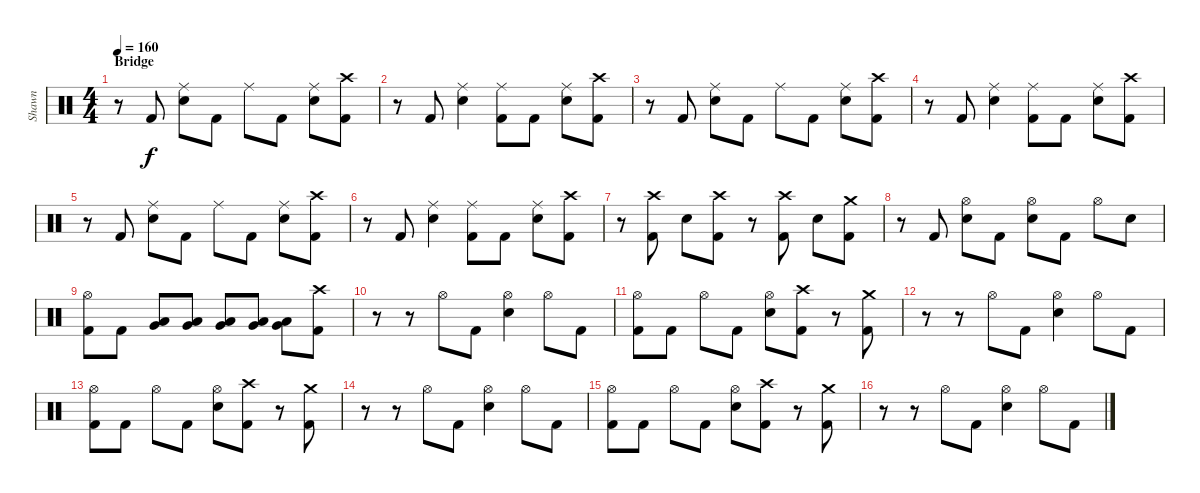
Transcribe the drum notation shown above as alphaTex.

\track ("Shawn" "Shawn") {instrument percussion}
\staff {score}
\articulation defaults
\ts (4 4)
\section ("" "Bridge")
\tempo 160
\clef neutral
\ks c
r.8{dy f} "Kick (hit) 2".8 ("Ride (middle)" "Snare (hit) 2").8 "Kick (hit) 2".8 "Ride (middle)".8 "Kick (hit) 2".8 ("Ride (middle)" "Snare (hit) 2").8 ("Crash high (hit)" "Kick (hit) 2").8 |
r.8 "Kick (hit) 2".8 ("Ride (middle)" "Snare (hit) 2").4 ("Ride (middle)" "Kick (hit) 2").8 "Kick (hit) 2".8 ("Ride (middle)" "Snare (hit) 2").8 ("Crash high (hit)" "Kick (hit) 2").8 |
r.8 "Kick (hit) 2".8 ("Ride (middle)" "Snare (hit) 2").8 "Kick (hit) 2".8 "Ride (middle)".8 "Kick (hit) 2".8 ("Ride (middle)" "Snare (hit) 2").8 ("Crash high (hit)" "Kick (hit) 2").8 |
r.8 "Kick (hit) 2".8 ("Ride (middle)" "Snare (hit) 2").4 ("Ride (middle)" "Kick (hit) 2").8 "Kick (hit) 2".8 ("Ride (middle)" "Snare (hit) 2").8 ("Crash high (hit)" "Kick (hit) 2").8 |
r.8 "Kick (hit) 2".8 ("Ride (middle)" "Snare (hit) 2").8 "Kick (hit) 2".8 "Ride (middle)".8 "Kick (hit) 2".8 ("Ride (middle)" "Snare (hit) 2").8 ("Crash high (hit)" "Kick (hit) 2").8 |
r.8 "Kick (hit) 2".8 ("Ride (middle)" "Snare (hit) 2").4 ("Ride (middle)" "Kick (hit) 2").8 "Kick (hit) 2".8 ("Ride (middle)" "Snare (hit) 2").8 ("Crash high (hit)" "Kick (hit) 2").8 |
r.8 ("Crash high (hit)" "Kick (hit) 2").8 "Snare (hit) 2".8 ("Crash high (hit)" "Kick (hit) 2").8 r.8 ("Crash high (hit)" "Kick (hit) 2").8 "Snare (hit) 2".8 ("Crash medium (hit)" "Kick (hit) 2").8 |
r.8 "Kick (hit) 2".8 ("Hi-Hat (open)" "Snare (hit) 2").8 "Kick (hit) 2".8 ("Hi-Hat (open)" "Snare (hit) 2").8 "Kick (hit) 2".8 "Hi-Hat (open)".8 "Snare (hit) 2".8 |
("Hi-Hat (open)" "Kick (hit) 2").8 "Kick (hit) 2".8 ("Very Low Tom (hit)" "Low Floor Tom (hit)").8 ("Very Low Tom (hit)" "Low Floor Tom (hit)").8 ("Very Low Tom (hit)" "Low Floor Tom (hit)").8 ("Very Low Tom (hit)" "Low Floor Tom (hit)").8 ("Very Low Tom (hit)" "Low Floor Tom (hit)").8 ("Crash high (hit)" "Kick (hit) 2").8 |
r.8 r.8 "Hi-Hat (open)".8 "Kick (hit) 2".8 ("Hi-Hat (open)" "Snare (hit) 2").4 "Hi-Hat (open)".8 "Kick (hit) 2".8 |
("Hi-Hat (open)" "Kick (hit) 2").8 "Kick (hit) 2".8 "Hi-Hat (open)".8 "Kick (hit) 2".8 ("Hi-Hat (open)" "Snare (hit) 2").8 ("Crash high (hit)" "Kick (hit) 2").8 r.8 ("Crash medium (hit)" "Kick (hit) 2").8 |
r.8 r.8 "Hi-Hat (open)".8 "Kick (hit) 2".8 ("Hi-Hat (open)" "Snare (hit) 2").4 "Hi-Hat (open)".8 "Kick (hit) 2".8 |
("Hi-Hat (open)" "Kick (hit) 2").8 "Kick (hit) 2".8 "Hi-Hat (open)".8 "Kick (hit) 2".8 ("Hi-Hat (open)" "Snare (hit) 2").8 ("Crash high (hit)" "Kick (hit) 2").8 r.8 ("Crash medium (hit)" "Kick (hit) 2").8 |
r.8 r.8 "Hi-Hat (open)".8 "Kick (hit) 2".8 ("Hi-Hat (open)" "Snare (hit) 2").4 "Hi-Hat (open)".8 "Kick (hit) 2".8 |
("Hi-Hat (open)" "Kick (hit) 2").8 "Kick (hit) 2".8 "Hi-Hat (open)".8 "Kick (hit) 2".8 ("Hi-Hat (open)" "Snare (hit) 2").8 ("Crash high (hit)" "Kick (hit) 2").8 r.8 ("Crash medium (hit)" "Kick (hit) 2").8 |
r.8 r.8 "Hi-Hat (open)".8 "Kick (hit) 2".8 ("Hi-Hat (open)" "Snare (hit) 2").4 "Hi-Hat (open)".8 "Kick (hit) 2".8
